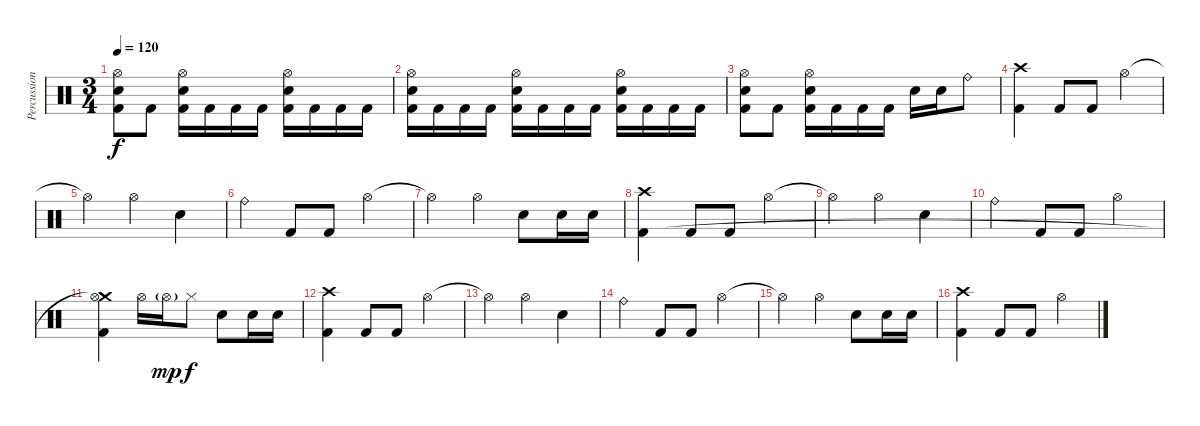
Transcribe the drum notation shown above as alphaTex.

\track ("Percussion" "Percussion") {instrument percussion}
\staff {score}
\articulation defaults
\ts (3 4)
\tempo 120
\clef neutral
\ks c
("Hi-Hat (open)" "Electric Snare (hit)" "Kick (hit) 2").8{dy f} "Kick (hit) 2".8 ("Hi-Hat (open)" "Electric Snare (hit)" "Kick (hit) 2").16 "Kick (hit) 2".16 "Kick (hit) 2".16 "Kick (hit) 2".16 ("Hi-Hat (open)" "Electric Snare (hit)" "Kick (hit) 2").16 "Kick (hit) 2".16 "Kick (hit) 2".16 "Kick (hit) 2".16 |
("Hi-Hat (open)" "Electric Snare (hit)" "Kick (hit) 2").16 "Kick (hit) 2".16 "Kick (hit) 2".16 "Kick (hit) 2".16 ("Hi-Hat (open)" "Electric Snare (hit)" "Kick (hit) 2").16 "Kick (hit) 2".16 "Kick (hit) 2".16 "Kick (hit) 2".16 ("Hi-Hat (open)" "Electric Snare (hit)" "Kick (hit) 2").16 "Kick (hit) 2".16 "Kick (hit) 2".16 "Kick (hit) 2".16 |
("Hi-Hat (open)" "Electric Snare (hit)" "Kick (hit) 2").8 "Kick (hit) 2".8 ("Hi-Hat (open)" "Electric Snare (hit)" "Kick (hit) 2").16 "Kick (hit) 2".16 "Kick (hit) 2".16 "Kick (hit) 2".16 "Electric Snare (hit)".16 "Electric Snare (hit)".16 "Ride (bell)".8 |
("Crash high (hit)" "Kick (hit) 2").4 "Kick (hit) 2".8 "Kick (hit) 2".8 "Hi-Hat (open)".4 |
"Hi-Hat (open)"{t}.4 "Hi-Hat (open)".4 "Electric Snare (hit)".4 |
"Ride (bell)".4 "Kick (hit) 2".8 "Kick (hit) 2".8 "Hi-Hat (open)".4 |
"Hi-Hat (open)"{t}.4 "Hi-Hat (open)".4 "Electric Snare (hit)".8 "Electric Snare (hit)".16 "Electric Snare (hit)".16 |
("Crash high (hit)" "Kick (hit) 2").4 "Kick (hit) 2".8 "Kick (hit) 2".8 "Hi-Hat (open)".4 |
"Hi-Hat (open)"{t}.4 "Hi-Hat (open)".4 "Electric Snare (hit)".4 |
"Ride (bell)".4 "Kick (hit) 2".8 "Kick (hit) 2".8 "Hi-Hat (open)".4 |
("Crash medium (hit)" "Hi-Hat (open)"{t} "Kick (hit) 2").4 "Hi-Hat (open)".16 "Hi-Hat (open)"{g}.16{dy mp} "Hi-Hat (closed)".8{dy f} "Electric Snare (hit)".8 "Electric Snare (hit)".16 "Electric Snare (hit)".16 |
("Crash high (hit)" "Kick (hit) 2").4 "Kick (hit) 2".8 "Kick (hit) 2".8 "Hi-Hat (open)".4 |
"Hi-Hat (open)"{t}.4 "Hi-Hat (open)".4 "Electric Snare (hit)".4 |
"Ride (bell)".4 "Kick (hit) 2".8 "Kick (hit) 2".8 "Hi-Hat (open)".4 |
"Hi-Hat (open)"{t}.4 "Hi-Hat (open)".4 "Electric Snare (hit)".8 "Electric Snare (hit)".16 "Electric Snare (hit)".16 |
("Crash high (hit)" "Kick (hit) 2").4 "Kick (hit) 2".8 "Kick (hit) 2".8 "Hi-Hat (open)".4
